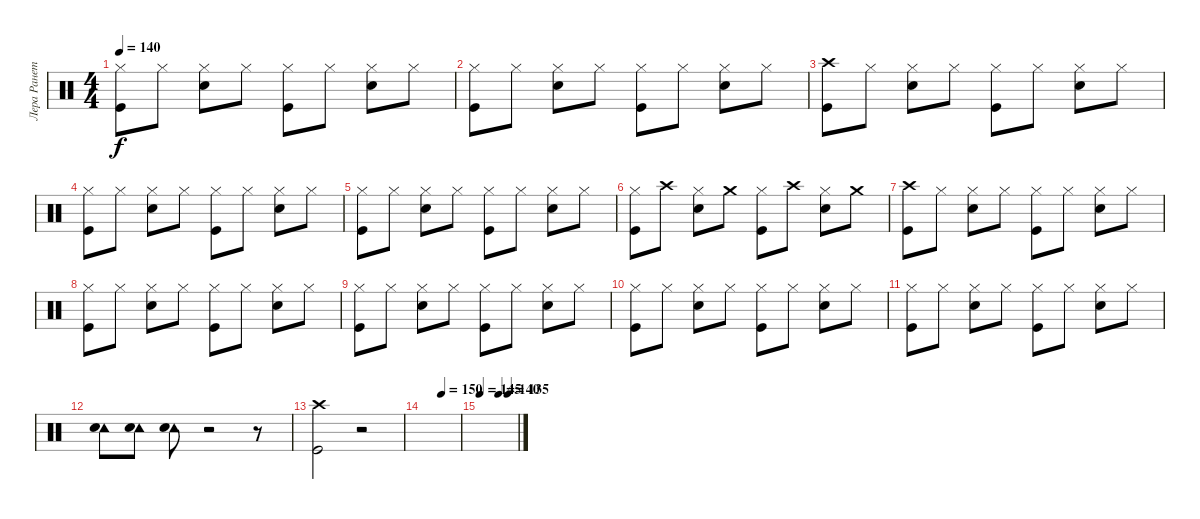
\track ("Лера Ранетка" "Лера Ранет") {instrument percussion}
\staff {score}
\articulation defaults
\ts (4 4)
\tempo 140
\clef neutral
\ks c
("Hi-Hat (closed)" "Kick (hit)").8{dy f} "Hi-Hat (closed)".8 ("Hi-Hat (closed)" "Electric Snare (hit)").8 "Hi-Hat (closed)".8 ("Hi-Hat (closed)" "Kick (hit)").8 "Hi-Hat (closed)".8 ("Hi-Hat (closed)" "Electric Snare (hit)").8 "Hi-Hat (closed)".8 |
("Hi-Hat (closed)" "Kick (hit)").8 "Hi-Hat (closed)".8 ("Hi-Hat (closed)" "Electric Snare (hit)").8 "Hi-Hat (closed)".8 ("Hi-Hat (closed)" "Kick (hit)").8 "Hi-Hat (closed)".8 ("Hi-Hat (closed)" "Electric Snare (hit)").8 "Hi-Hat (closed)".8 |
("Crash high (hit)" "Kick (hit)").8 "Hi-Hat (closed)".8 ("Hi-Hat (closed)" "Electric Snare (hit)").8 "Hi-Hat (closed)".8 ("Hi-Hat (closed)" "Kick (hit)").8 "Hi-Hat (closed)".8 ("Hi-Hat (closed)" "Electric Snare (hit)").8 "Hi-Hat (closed)".8 |
("Hi-Hat (closed)" "Kick (hit)").8 "Hi-Hat (closed)".8 ("Hi-Hat (closed)" "Electric Snare (hit)").8 "Hi-Hat (closed)".8 ("Hi-Hat (closed)" "Kick (hit)").8 "Hi-Hat (closed)".8 ("Hi-Hat (closed)" "Electric Snare (hit)").8 "Hi-Hat (closed)".8 |
("Hi-Hat (closed)" "Kick (hit)").8 "Hi-Hat (closed)".8 ("Hi-Hat (closed)" "Electric Snare (hit)").8 "Hi-Hat (closed)".8 ("Hi-Hat (closed)" "Kick (hit)").8 "Hi-Hat (closed)".8 ("Hi-Hat (closed)" "Electric Snare (hit)").8 "Hi-Hat (closed)".8 |
("Hi-Hat (closed)" "Kick (hit)").8 "Crash high (hit)".8 ("Hi-Hat (closed)" "Electric Snare (hit)").8 "Crash medium (hit)".8 ("Hi-Hat (closed)" "Kick (hit)").8 "Crash high (hit)".8 ("Hi-Hat (closed)" "Electric Snare (hit)").8 "Crash medium (hit)".8 |
("Crash high (hit)" "Kick (hit)").8 "Hi-Hat (closed)".8 ("Hi-Hat (closed)" "Electric Snare (hit)").8 "Hi-Hat (closed)".8 ("Hi-Hat (closed)" "Kick (hit)").8 "Hi-Hat (closed)".8 ("Hi-Hat (closed)" "Electric Snare (hit)").8 "Hi-Hat (closed)".8 |
("Hi-Hat (closed)" "Kick (hit)").8 "Hi-Hat (closed)".8 ("Hi-Hat (closed)" "Electric Snare (hit)").8 "Hi-Hat (closed)".8 ("Hi-Hat (closed)" "Kick (hit)").8 "Hi-Hat (closed)".8 ("Hi-Hat (closed)" "Electric Snare (hit)").8 "Hi-Hat (closed)".8 |
("Hi-Hat (closed)" "Kick (hit)").8 "Hi-Hat (closed)".8 ("Hi-Hat (closed)" "Electric Snare (hit)").8 "Hi-Hat (closed)".8 ("Hi-Hat (closed)" "Kick (hit)").8 "Hi-Hat (closed)".8 ("Hi-Hat (closed)" "Electric Snare (hit)").8 "Hi-Hat (closed)".8 |
("Hi-Hat (closed)" "Kick (hit)").8 "Hi-Hat (closed)".8 ("Hi-Hat (closed)" "Electric Snare (hit)").8 "Hi-Hat (closed)".8 ("Hi-Hat (closed)" "Kick (hit)").8 "Hi-Hat (closed)".8 ("Hi-Hat (closed)" "Electric Snare (hit)").8 "Hi-Hat (closed)".8 |
("Hi-Hat (closed)" "Kick (hit)").8 "Hi-Hat (closed)".8 ("Hi-Hat (closed)" "Electric Snare (hit)").8 "Hi-Hat (closed)".8 ("Hi-Hat (closed)" "Kick (hit)").8 "Hi-Hat (closed)".8 ("Hi-Hat (closed)" "Electric Snare (hit)").8 "Hi-Hat (closed)".8 |
("Tambourine (hit)" "Electric Snare (hit)").8 ("Tambourine (hit)" "Electric Snare (hit)").8 ("Tambourine (hit)" "Electric Snare (hit)").8 r.2 r.8 |
("Crash high (hit)" "Kick (hit)").2 r.2 |
\tempo (150 0.5)
|
\tempo 145
\tempo (140 0.5)
\tempo (135 0.75)
